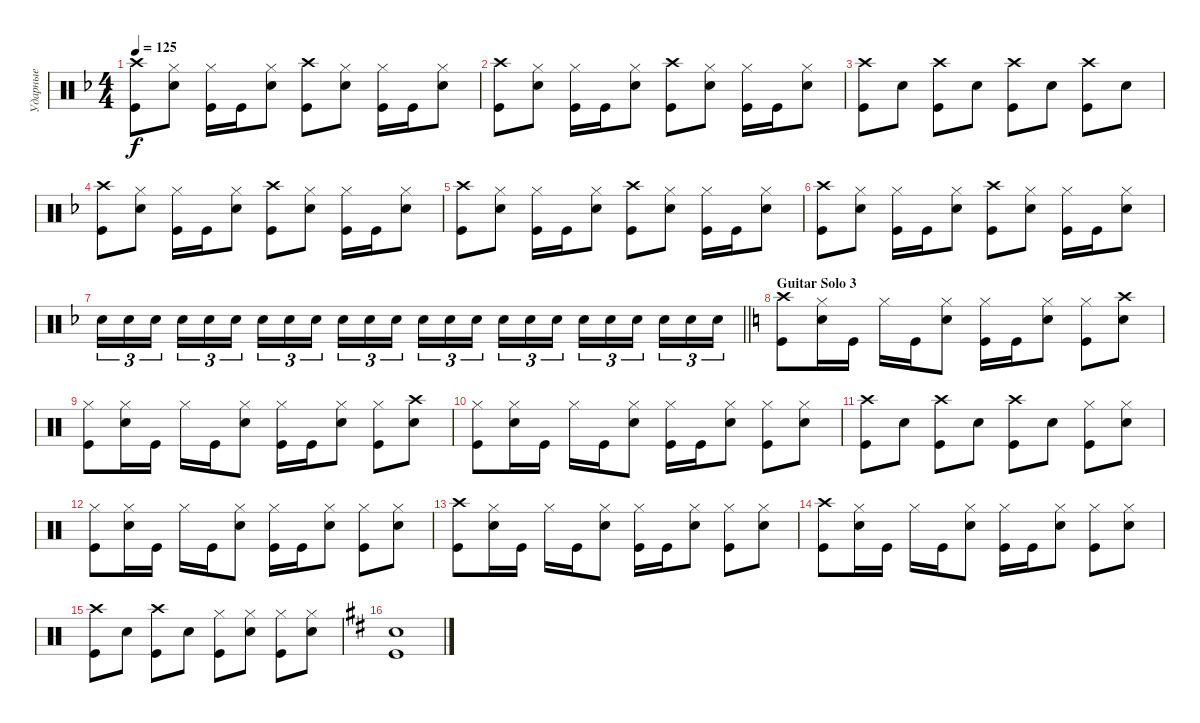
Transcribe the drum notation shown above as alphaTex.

\track ("Ударные" "Ударные") {instrument percussion}
\staff {score}
\articulation defaults
\ts (4 4)
\tempo 125
\clef neutral
\ks dminor
("Kick (hit)" "Crash high (hit)").8{dy f} ("Snare (hit) 2" "Hi-Hat (closed)").8 ("Kick (hit)" "Hi-Hat (closed)").16 "Kick (hit)".16 ("Snare (hit) 2" "Hi-Hat (closed)").8 ("Kick (hit)" "Crash high (hit)").8 ("Snare (hit) 2" "Hi-Hat (closed)").8 ("Kick (hit)" "Hi-Hat (closed)").16 "Kick (hit)".16 ("Snare (hit) 2" "Hi-Hat (closed)").8 |
("Kick (hit)" "Crash high (hit)").8 ("Snare (hit) 2" "Hi-Hat (closed)").8 ("Kick (hit)" "Hi-Hat (closed)").16 "Kick (hit)".16 ("Snare (hit) 2" "Hi-Hat (closed)").8 ("Kick (hit)" "Crash high (hit)").8 ("Snare (hit) 2" "Hi-Hat (closed)").8 ("Kick (hit)" "Hi-Hat (closed)").16 "Kick (hit)".16 ("Snare (hit) 2" "Hi-Hat (closed)").8 |
("Kick (hit)" "Crash high (hit)").8 "Snare (hit) 2".8 ("Kick (hit)" "Crash high (hit)").8 "Snare (hit) 2".8 ("Kick (hit)" "Crash high (hit)").8 "Snare (hit) 2".8 ("Kick (hit)" "Crash high (hit)").8 "Snare (hit) 2".8 |
("Kick (hit)" "Crash high (hit)").8 ("Snare (hit) 2" "Hi-Hat (closed)").8 ("Kick (hit)" "Hi-Hat (closed)").16 "Kick (hit)".16 ("Snare (hit) 2" "Hi-Hat (closed)").8 ("Kick (hit)" "Crash high (hit)").8 ("Snare (hit) 2" "Hi-Hat (closed)").8 ("Kick (hit)" "Hi-Hat (closed)").16 "Kick (hit)".16 ("Snare (hit) 2" "Hi-Hat (closed)").8 |
("Kick (hit)" "Crash high (hit)").8 ("Snare (hit) 2" "Hi-Hat (closed)").8 ("Kick (hit)" "Hi-Hat (closed)").16 "Kick (hit)".16 ("Snare (hit) 2" "Hi-Hat (closed)").8 ("Kick (hit)" "Crash high (hit)").8 ("Snare (hit) 2" "Hi-Hat (closed)").8 ("Kick (hit)" "Hi-Hat (closed)").16 "Kick (hit)".16 ("Snare (hit) 2" "Hi-Hat (closed)").8 |
("Kick (hit)" "Crash high (hit)").8 ("Snare (hit) 2" "Hi-Hat (closed)").8 ("Kick (hit)" "Hi-Hat (closed)").16 "Kick (hit)".16 ("Snare (hit) 2" "Hi-Hat (closed)").8 ("Kick (hit)" "Crash high (hit)").8 ("Snare (hit) 2" "Hi-Hat (closed)").8 ("Kick (hit)" "Hi-Hat (closed)").16 "Kick (hit)".16 ("Snare (hit) 2" "Hi-Hat (closed)").8 |
\barLineRight lightlight "Snare (hit) 2".16{tu (3 2)} "Snare (hit) 2".16{tu (3 2)} "Snare (hit) 2".16{tu (3 2) beam splitsecondary} "Snare (hit) 2".16{tu (3 2)} "Snare (hit) 2".16{tu (3 2)} "Snare (hit) 2".16{tu (3 2)} "Snare (hit) 2".16{tu (3 2)} "Snare (hit) 2".16{tu (3 2)} "Snare (hit) 2".16{tu (3 2) beam splitsecondary} "Snare (hit) 2".16{tu (3 2)} "Snare (hit) 2".16{tu (3 2)} "Snare (hit) 2".16{tu (3 2)} "Snare (hit) 2".16{tu (3 2)} "Snare (hit) 2".16{tu (3 2)} "Snare (hit) 2".16{tu (3 2) beam splitsecondary} "Snare (hit) 2".16{tu (3 2)} "Snare (hit) 2".16{tu (3 2)} "Snare (hit) 2".16{tu (3 2)} "Snare (hit) 2".16{tu (3 2)} "Snare (hit) 2".16{tu (3 2)} "Snare (hit) 2".16{tu (3 2) beam splitsecondary} "Snare (hit) 2".16{tu (3 2)} "Snare (hit) 2".16{tu (3 2)} "Snare (hit) 2".16{tu (3 2)}
|
\section ("" "Guitar Solo 3")
\ks aminor
("Kick (hit)" "Crash high (hit)").8 ("Snare (hit) 2" "Hi-Hat (closed)").16 "Kick (hit)".16 "Hi-Hat (closed)".16 "Kick (hit)".16 ("Snare (hit) 2" "Hi-Hat (closed)").8 ("Kick (hit)" "Hi-Hat (closed)").16 "Kick (hit)".16 ("Snare (hit) 2" "Hi-Hat (closed)").8 ("Kick (hit)" "Hi-Hat (closed)").8 ("Snare (hit) 2" "Crash high (hit)").8 |
("Kick (hit)" "Hi-Hat (closed)").8 ("Snare (hit) 2" "Hi-Hat (closed)").16 "Kick (hit)".16 "Hi-Hat (closed)".16 "Kick (hit)".16 ("Snare (hit) 2" "Hi-Hat (closed)").8 ("Kick (hit)" "Hi-Hat (closed)").16 "Kick (hit)".16 ("Snare (hit) 2" "Hi-Hat (closed)").8 ("Kick (hit)" "Hi-Hat (closed)").8 ("Snare (hit) 2" "Crash high (hit)").8 |
("Kick (hit)" "Hi-Hat (closed)").8 ("Snare (hit) 2" "Hi-Hat (closed)").16 "Kick (hit)".16 "Hi-Hat (closed)".16 "Kick (hit)".16 ("Snare (hit) 2" "Hi-Hat (closed)").8 ("Kick (hit)" "Hi-Hat (closed)").16 "Kick (hit)".16 ("Snare (hit) 2" "Hi-Hat (closed)").8 ("Kick (hit)" "Hi-Hat (closed)").8 ("Snare (hit) 2" "Hi-Hat (closed)").8 |
("Kick (hit)" "Crash high (hit)").8 "Snare (hit) 2".8 ("Kick (hit)" "Crash high (hit)").8 "Snare (hit) 2".8 ("Kick (hit)" "Crash high (hit)").8 "Snare (hit) 2".8 ("Kick (hit)" "Hi-Hat (closed)").8 ("Snare (hit) 2" "Hi-Hat (closed)").8 |
("Kick (hit)" "Hi-Hat (closed)").8 ("Snare (hit) 2" "Hi-Hat (closed)").16 "Kick (hit)".16 "Hi-Hat (closed)".16 "Kick (hit)".16 ("Snare (hit) 2" "Hi-Hat (closed)").8 ("Kick (hit)" "Hi-Hat (closed)").16 "Kick (hit)".16 ("Snare (hit) 2" "Hi-Hat (closed)").8 ("Kick (hit)" "Hi-Hat (closed)").8 ("Snare (hit) 2" "Hi-Hat (closed)").8 |
("Kick (hit)" "Crash high (hit)").8 ("Snare (hit) 2" "Hi-Hat (closed)").16 "Kick (hit)".16 "Hi-Hat (closed)".16 "Kick (hit)".16 ("Snare (hit) 2" "Hi-Hat (closed)").8 ("Kick (hit)" "Hi-Hat (closed)").16 "Kick (hit)".16 ("Snare (hit) 2" "Hi-Hat (closed)").8 ("Kick (hit)" "Hi-Hat (closed)").8 ("Snare (hit) 2" "Hi-Hat (closed)").8 |
("Kick (hit)" "Crash high (hit)").8 ("Snare (hit) 2" "Hi-Hat (closed)").16 "Kick (hit)".16 "Hi-Hat (closed)".16 "Kick (hit)".16 ("Snare (hit) 2" "Hi-Hat (closed)").8 ("Kick (hit)" "Hi-Hat (closed)").16 "Kick (hit)".16 ("Snare (hit) 2" "Hi-Hat (closed)").8 ("Kick (hit)" "Hi-Hat (closed)").8 ("Snare (hit) 2" "Hi-Hat (closed)").8 |
("Kick (hit)" "Crash high (hit)").8 "Snare (hit) 2".8 ("Kick (hit)" "Crash high (hit)").8 "Snare (hit) 2".8 ("Kick (hit)" "Hi-Hat (closed)").8 ("Snare (hit) 2" "Hi-Hat (closed)").8 ("Kick (hit)" "Hi-Hat (closed)").8 ("Snare (hit) 2" "Hi-Hat (closed)").8 |
\ks bminor
("Kick (hit)" "Snare (hit) 2").1
